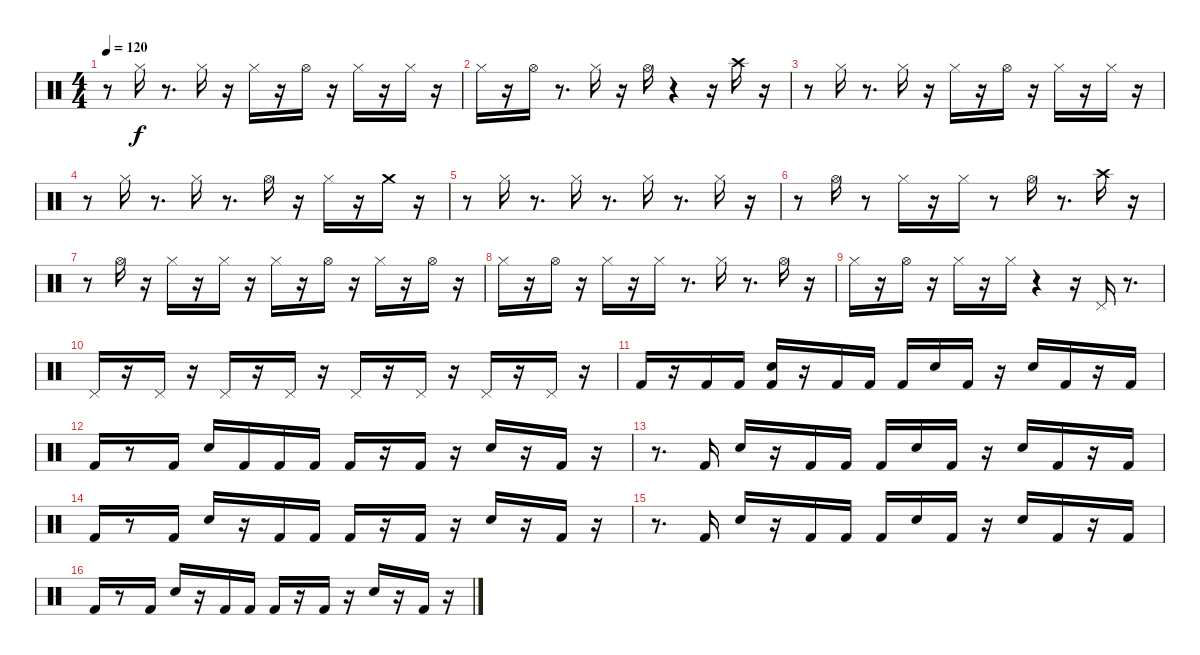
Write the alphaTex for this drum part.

\track "" {instrument percussion}
\staff {score}
\articulation defaults
\ts (4 4)
\tempo 120
\clef neutral
\ks c
r.8{dy f} "Hi-Hat (closed)".16 r.8{d} "Hi-Hat (closed)".16 r.16 "Hi-Hat (closed)".16 r.16 "Hi-Hat (open)".16 r.16 "Hi-Hat (closed)".16 r.16 "Hi-Hat (closed)".16 r.16 |
"Hi-Hat (closed)".16 r.16 "Hi-Hat (open)".16 r.8{d} "Hi-Hat (closed)".16 r.16 "Hi-Hat (open)".16 r.4 r.16 "Crash high (hit)".16 r.16 |
r.8 "Hi-Hat (closed)".16 r.8{d} "Hi-Hat (closed)".16 r.16 "Hi-Hat (closed)".16 r.16 "Hi-Hat (open)".16 r.16 "Hi-Hat (closed)".16 r.16 "Hi-Hat (closed)".16 r.16 |
r.8 "Hi-Hat (closed)".16 r.8{d} "Hi-Hat (closed)".16 r.8{d} "Hi-Hat (open)".16 r.16 "Hi-Hat (closed)".16 r.16 "Crash medium (hit)".16 r.16 |
r.8 "Hi-Hat (closed)".16 r.8{d} "Hi-Hat (closed)".16 r.8{d} "Hi-Hat (closed)".16 r.8{d} "Hi-Hat (closed)".16 r.16 |
r.8 "Hi-Hat (open)".16 r.8 "Hi-Hat (closed)".16 r.16 "Hi-Hat (closed)".16 r.8 "Hi-Hat (open)".16 r.8{d} "Crash high (hit)".16 r.16 |
r.8 "Hi-Hat (open)".16 r.16 "Hi-Hat (closed)".16 r.16 "Hi-Hat (closed)".16 r.16 "Hi-Hat (closed)".16 r.16 "Hi-Hat (open)".16 r.16 "Hi-Hat (closed)".16 r.16 "Hi-Hat (open)".16 r.16 |
"Hi-Hat (closed)".16 r.16 "Hi-Hat (open)".16 r.16 "Hi-Hat (closed)".16 r.16 "Hi-Hat (closed)".16 r.8{d} "Hi-Hat (closed)".16 r.8{d} "Hi-Hat (open)".16 r.16 |
"Hi-Hat (closed)".16 r.16 "Hi-Hat (open)".16 r.16 "Hi-Hat (closed)".16 r.16 "Hi-Hat (closed)".16 r.4 r.16 "Pedal Hi-Hat (hit)".16 r.8{d} |
"Pedal Hi-Hat (hit)".16 r.16 "Pedal Hi-Hat (hit)".16 r.16 "Pedal Hi-Hat (hit)".16 r.16 "Pedal Hi-Hat (hit)".16 r.16 "Pedal Hi-Hat (hit)".16 r.16 "Pedal Hi-Hat (hit)".16 r.16 "Pedal Hi-Hat (hit)".16 r.16 "Pedal Hi-Hat (hit)".16 r.16 |
"Kick (hit) 2".16 r.16 "Kick (hit) 2".16 "Kick (hit) 2".16 ("Kick (hit) 2" "Electric Snare (hit)").16 r.16 "Kick (hit) 2".16 "Kick (hit) 2".16 "Kick (hit) 2".16 "Electric Snare (hit)".16 "Kick (hit) 2".16 r.16 "Electric Snare (hit)".16 "Kick (hit) 2".16 r.16 "Kick (hit) 2".16 |
"Kick (hit) 2".16 r.8 "Kick (hit) 2".16 "Electric Snare (hit)".16 "Kick (hit) 2".16 "Kick (hit) 2".16 "Kick (hit) 2".16 "Kick (hit) 2".16 r.16 "Kick (hit) 2".16 r.16 "Electric Snare (hit)".16 r.16 "Kick (hit) 2".16 r.16 |
r.8{d} "Kick (hit) 2".16 "Electric Snare (hit)".16 r.16 "Kick (hit) 2".16 "Kick (hit) 2".16 "Kick (hit) 2".16 "Electric Snare (hit)".16 "Kick (hit) 2".16 r.16 "Electric Snare (hit)".16 "Kick (hit) 2".16 r.16 "Kick (hit) 2".16 |
"Kick (hit) 2".16 r.8 "Kick (hit) 2".16 "Electric Snare (hit)".16 r.16 "Kick (hit) 2".16 "Kick (hit) 2".16 "Kick (hit) 2".16 r.16 "Kick (hit) 2".16 r.16 "Electric Snare (hit)".16 r.16 "Kick (hit) 2".16 r.16 |
r.8{d} "Kick (hit) 2".16 "Electric Snare (hit)".16 r.16 "Kick (hit) 2".16 "Kick (hit) 2".16 "Kick (hit) 2".16 "Electric Snare (hit)".16 "Kick (hit) 2".16 r.16 "Electric Snare (hit)".16 "Kick (hit) 2".16 r.16 "Kick (hit) 2".16 |
"Kick (hit) 2".16 r.8 "Kick (hit) 2".16 "Electric Snare (hit)".16 r.16 "Kick (hit) 2".16 "Kick (hit) 2".16 "Kick (hit) 2".16 r.16 "Kick (hit) 2".16 r.16 "Electric Snare (hit)".16 r.16 "Kick (hit) 2".16 r.16
